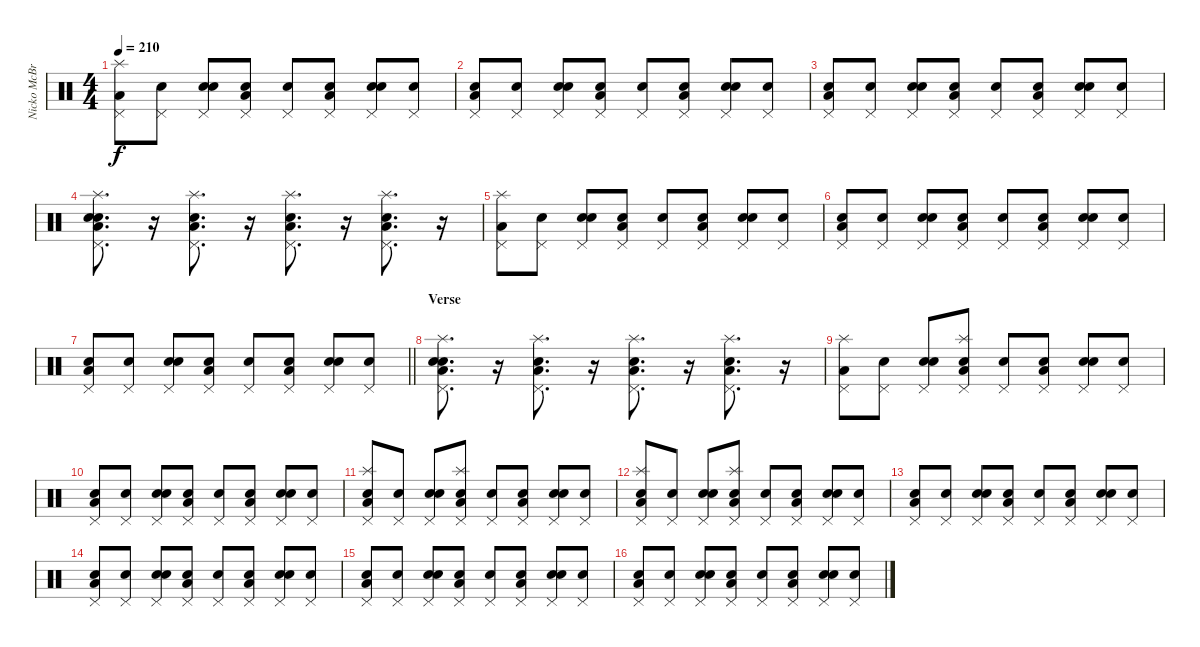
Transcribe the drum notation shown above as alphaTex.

\track ("Nicko McBrain" "Nicko McBr") {instrument percussion}
\staff {score}
\articulation defaults
\ts (4 4)
\tempo 210
\clef neutral
\ks c
("Low Floor Tom (hit)" "Pedal Hi-Hat (hit)" "Splash (hit)").8{dy f} ("Snare (hit)" "Pedal Hi-Hat (hit)").8 ("Snare (hit)" "Electric Snare (hit)" "Pedal Hi-Hat (hit)").8 ("Snare (hit)" "Low Floor Tom (hit)" "Pedal Hi-Hat (hit)").8 ("Snare (hit)" "Pedal Hi-Hat (hit)").8 ("Snare (hit)" "Low Floor Tom (hit)" "Pedal Hi-Hat (hit)").8 ("Snare (hit)" "Electric Snare (hit)" "Pedal Hi-Hat (hit)").8 ("Snare (hit)" "Pedal Hi-Hat (hit)").8 |
("Snare (hit)" "Low Floor Tom (hit)" "Pedal Hi-Hat (hit)").8 ("Snare (hit)" "Pedal Hi-Hat (hit)").8 ("Snare (hit)" "Electric Snare (hit)" "Pedal Hi-Hat (hit)").8 ("Snare (hit)" "Low Floor Tom (hit)" "Pedal Hi-Hat (hit)").8 ("Snare (hit)" "Pedal Hi-Hat (hit)").8 ("Snare (hit)" "Low Floor Tom (hit)" "Pedal Hi-Hat (hit)").8 ("Snare (hit)" "Electric Snare (hit)" "Pedal Hi-Hat (hit)").8 ("Snare (hit)" "Pedal Hi-Hat (hit)").8 |
("Snare (hit)" "Low Floor Tom (hit)" "Pedal Hi-Hat (hit)").8 ("Snare (hit)" "Pedal Hi-Hat (hit)").8 ("Snare (hit)" "Electric Snare (hit)" "Pedal Hi-Hat (hit)").8 ("Snare (hit)" "Low Floor Tom (hit)" "Pedal Hi-Hat (hit)").8 ("Snare (hit)" "Pedal Hi-Hat (hit)").8 ("Snare (hit)" "Low Floor Tom (hit)" "Pedal Hi-Hat (hit)").8 ("Snare (hit)" "Electric Snare (hit)" "Pedal Hi-Hat (hit)").8 ("Snare (hit)" "Pedal Hi-Hat (hit)").8 |
("Snare (hit)" "Electric Snare (hit)" "Low Floor Tom (hit)" "Pedal Hi-Hat (hit)" "Splash (hit)").8{d} r.16 ("Electric Snare (hit)" "Low Floor Tom (hit)" "Pedal Hi-Hat (hit)" "Splash (hit)").8{d} r.16 ("Electric Snare (hit)" "Low Floor Tom (hit)" "Pedal Hi-Hat (hit)" "Splash (hit)").8{d} r.16 ("Electric Snare (hit)" "Low Floor Tom (hit)" "Pedal Hi-Hat (hit)" "Splash (hit)").8{d} r.16 |
("Low Floor Tom (hit)" "Pedal Hi-Hat (hit)" "Splash (hit)").8 ("Snare (hit)" "Pedal Hi-Hat (hit)").8 ("Snare (hit)" "Electric Snare (hit)" "Pedal Hi-Hat (hit)").8 ("Snare (hit)" "Low Floor Tom (hit)" "Pedal Hi-Hat (hit)").8 ("Snare (hit)" "Pedal Hi-Hat (hit)").8 ("Snare (hit)" "Low Floor Tom (hit)" "Pedal Hi-Hat (hit)").8 ("Snare (hit)" "Electric Snare (hit)" "Pedal Hi-Hat (hit)").8 ("Snare (hit)" "Pedal Hi-Hat (hit)").8 |
("Snare (hit)" "Low Floor Tom (hit)" "Pedal Hi-Hat (hit)").8 ("Snare (hit)" "Pedal Hi-Hat (hit)").8 ("Snare (hit)" "Electric Snare (hit)" "Pedal Hi-Hat (hit)").8 ("Snare (hit)" "Low Floor Tom (hit)" "Pedal Hi-Hat (hit)").8 ("Snare (hit)" "Pedal Hi-Hat (hit)").8 ("Snare (hit)" "Low Floor Tom (hit)" "Pedal Hi-Hat (hit)").8 ("Snare (hit)" "Electric Snare (hit)" "Pedal Hi-Hat (hit)").8 ("Snare (hit)" "Pedal Hi-Hat (hit)").8 |
\barLineRight lightlight
("Snare (hit)" "Low Floor Tom (hit)" "Pedal Hi-Hat (hit)").8 ("Snare (hit)" "Pedal Hi-Hat (hit)").8 ("Snare (hit)" "Electric Snare (hit)" "Pedal Hi-Hat (hit)").8 ("Snare (hit)" "Low Floor Tom (hit)" "Pedal Hi-Hat (hit)").8 ("Snare (hit)" "Pedal Hi-Hat (hit)").8 ("Snare (hit)" "Low Floor Tom (hit)" "Pedal Hi-Hat (hit)").8 ("Snare (hit)" "Electric Snare (hit)" "Pedal Hi-Hat (hit)").8 ("Snare (hit)" "Pedal Hi-Hat (hit)").8 |
\section ("" "Verse")
("Snare (hit)" "Electric Snare (hit)" "Low Floor Tom (hit)" "Pedal Hi-Hat (hit)" "Splash (hit)").8{d} r.16 ("Electric Snare (hit)" "Low Floor Tom (hit)" "Pedal Hi-Hat (hit)" "Splash (hit)").8{d} r.16 ("Electric Snare (hit)" "Low Floor Tom (hit)" "Pedal Hi-Hat (hit)" "Splash (hit)").8{d} r.16 ("Electric Snare (hit)" "Low Floor Tom (hit)" "Pedal Hi-Hat (hit)" "Splash (hit)").8{d} r.16 |
("Low Floor Tom (hit)" "Pedal Hi-Hat (hit)" "Splash (hit)").8 ("Snare (hit)" "Pedal Hi-Hat (hit)").8 ("Snare (hit)" "Electric Snare (hit)" "Pedal Hi-Hat (hit)").8 ("Snare (hit)" "Low Floor Tom (hit)" "Pedal Hi-Hat (hit)" "Splash (hit)").8 ("Snare (hit)" "Pedal Hi-Hat (hit)").8 ("Snare (hit)" "Low Floor Tom (hit)" "Pedal Hi-Hat (hit)").8 ("Snare (hit)" "Electric Snare (hit)" "Pedal Hi-Hat (hit)").8 ("Snare (hit)" "Pedal Hi-Hat (hit)").8 |
("Snare (hit)" "Low Floor Tom (hit)" "Pedal Hi-Hat (hit)").8 ("Snare (hit)" "Pedal Hi-Hat (hit)").8 ("Snare (hit)" "Electric Snare (hit)" "Pedal Hi-Hat (hit)").8 ("Snare (hit)" "Low Floor Tom (hit)" "Pedal Hi-Hat (hit)").8 ("Snare (hit)" "Pedal Hi-Hat (hit)").8 ("Snare (hit)" "Low Floor Tom (hit)" "Pedal Hi-Hat (hit)").8 ("Snare (hit)" "Electric Snare (hit)" "Pedal Hi-Hat (hit)").8 ("Snare (hit)" "Pedal Hi-Hat (hit)").8 |
("Snare (hit)" "Low Floor Tom (hit)" "Pedal Hi-Hat (hit)" "Splash (hit)").8 ("Snare (hit)" "Pedal Hi-Hat (hit)").8 ("Snare (hit)" "Electric Snare (hit)" "Pedal Hi-Hat (hit)").8 ("Snare (hit)" "Low Floor Tom (hit)" "Pedal Hi-Hat (hit)" "Splash (hit)").8 ("Snare (hit)" "Pedal Hi-Hat (hit)").8 ("Snare (hit)" "Low Floor Tom (hit)" "Pedal Hi-Hat (hit)").8 ("Snare (hit)" "Electric Snare (hit)" "Pedal Hi-Hat (hit)").8 ("Snare (hit)" "Pedal Hi-Hat (hit)").8 |
("Snare (hit)" "Low Floor Tom (hit)" "Pedal Hi-Hat (hit)" "Splash (hit)").8 ("Snare (hit)" "Pedal Hi-Hat (hit)").8 ("Snare (hit)" "Electric Snare (hit)" "Pedal Hi-Hat (hit)").8 ("Snare (hit)" "Low Floor Tom (hit)" "Pedal Hi-Hat (hit)" "Splash (hit)").8 ("Snare (hit)" "Pedal Hi-Hat (hit)").8 ("Snare (hit)" "Low Floor Tom (hit)" "Pedal Hi-Hat (hit)").8 ("Snare (hit)" "Electric Snare (hit)" "Pedal Hi-Hat (hit)").8 ("Snare (hit)" "Pedal Hi-Hat (hit)").8 |
("Snare (hit)" "Low Floor Tom (hit)" "Pedal Hi-Hat (hit)").8 ("Snare (hit)" "Pedal Hi-Hat (hit)").8 ("Snare (hit)" "Electric Snare (hit)" "Pedal Hi-Hat (hit)").8 ("Snare (hit)" "Low Floor Tom (hit)" "Pedal Hi-Hat (hit)").8 ("Snare (hit)" "Pedal Hi-Hat (hit)").8 ("Snare (hit)" "Low Floor Tom (hit)" "Pedal Hi-Hat (hit)").8 ("Snare (hit)" "Electric Snare (hit)" "Pedal Hi-Hat (hit)").8 ("Snare (hit)" "Pedal Hi-Hat (hit)").8 |
("Snare (hit)" "Low Floor Tom (hit)" "Pedal Hi-Hat (hit)").8 ("Snare (hit)" "Pedal Hi-Hat (hit)").8 ("Snare (hit)" "Electric Snare (hit)" "Pedal Hi-Hat (hit)").8 ("Snare (hit)" "Low Floor Tom (hit)" "Pedal Hi-Hat (hit)").8 ("Snare (hit)" "Pedal Hi-Hat (hit)").8 ("Snare (hit)" "Low Floor Tom (hit)" "Pedal Hi-Hat (hit)").8 ("Snare (hit)" "Electric Snare (hit)" "Pedal Hi-Hat (hit)").8 ("Snare (hit)" "Pedal Hi-Hat (hit)").8 |
("Snare (hit)" "Low Floor Tom (hit)" "Pedal Hi-Hat (hit)").8 ("Snare (hit)" "Pedal Hi-Hat (hit)").8 ("Snare (hit)" "Electric Snare (hit)" "Pedal Hi-Hat (hit)").8 ("Snare (hit)" "Low Floor Tom (hit)" "Pedal Hi-Hat (hit)").8 ("Snare (hit)" "Pedal Hi-Hat (hit)").8 ("Snare (hit)" "Low Floor Tom (hit)" "Pedal Hi-Hat (hit)").8 ("Snare (hit)" "Electric Snare (hit)" "Pedal Hi-Hat (hit)").8 ("Snare (hit)" "Pedal Hi-Hat (hit)").8 |
("Snare (hit)" "Low Floor Tom (hit)" "Pedal Hi-Hat (hit)").8 ("Snare (hit)" "Pedal Hi-Hat (hit)").8 ("Snare (hit)" "Electric Snare (hit)" "Pedal Hi-Hat (hit)").8 ("Snare (hit)" "Low Floor Tom (hit)" "Pedal Hi-Hat (hit)").8 ("Snare (hit)" "Pedal Hi-Hat (hit)").8 ("Snare (hit)" "Low Floor Tom (hit)" "Pedal Hi-Hat (hit)").8 ("Snare (hit)" "Electric Snare (hit)" "Pedal Hi-Hat (hit)").8 ("Snare (hit)" "Pedal Hi-Hat (hit)").8
